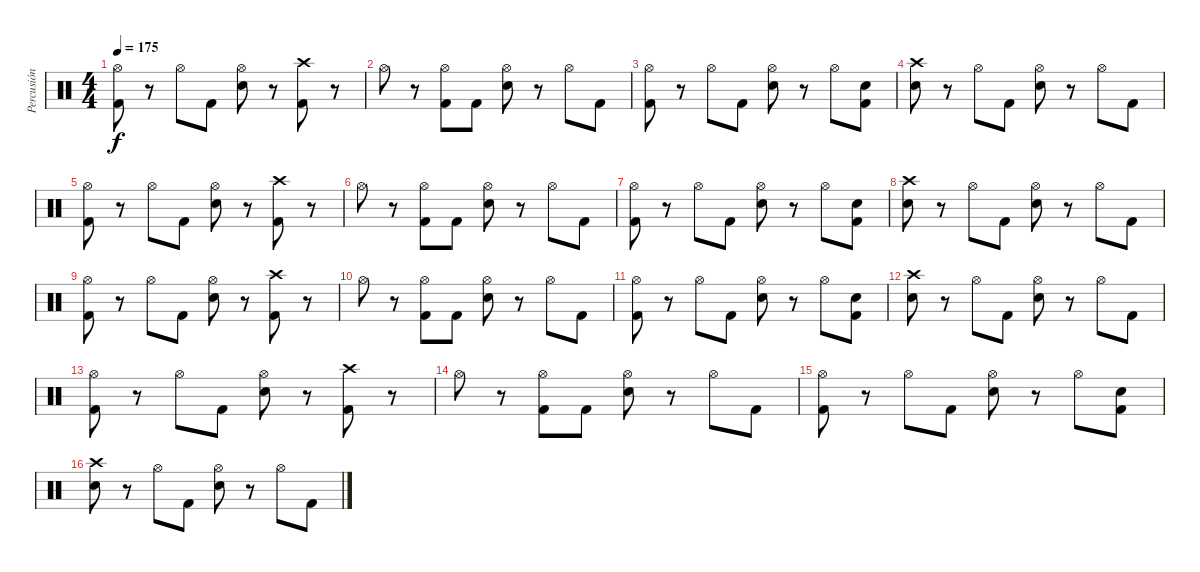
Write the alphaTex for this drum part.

\track ("Percusión" "Percusión") {instrument percussion}
\staff {score}
\articulation defaults
\ts (4 4)
\tempo 175
\clef neutral
\ks c
("Hi-Hat (open)" "Kick (hit) 2").8{dy f} r.8 "Hi-Hat (open)".8 "Kick (hit) 2".8 ("Hi-Hat (open)" "Electric Snare (hit)").8 r.8 ("Crash high (hit)" "Kick (hit) 2").8 r.8 |
"Hi-Hat (open)".8 r.8 ("Hi-Hat (open)" "Kick (hit) 2").8 "Kick (hit) 2".8 ("Hi-Hat (open)" "Electric Snare (hit)").8 r.8 "Hi-Hat (open)".8 "Kick (hit) 2".8 |
("Hi-Hat (open)" "Kick (hit) 2").8 r.8 "Hi-Hat (open)".8 "Kick (hit) 2".8 ("Electric Snare (hit)" "Hi-Hat (open)").8 r.8 "Hi-Hat (open)".8 ("Electric Snare (hit)" "Kick (hit) 2").8 |
("Crash high (hit)" "Electric Snare (hit)").8 r.8 "Hi-Hat (open)".8 "Kick (hit) 2".8 ("Hi-Hat (open)" "Electric Snare (hit)").8 r.8 "Hi-Hat (open)".8 "Kick (hit) 2".8 |
("Hi-Hat (open)" "Kick (hit) 2").8 r.8 "Hi-Hat (open)".8 "Kick (hit) 2".8 ("Hi-Hat (open)" "Electric Snare (hit)").8 r.8 ("Crash high (hit)" "Kick (hit) 2").8 r.8 |
"Hi-Hat (open)".8 r.8 ("Hi-Hat (open)" "Kick (hit) 2").8 "Kick (hit) 2".8 ("Hi-Hat (open)" "Electric Snare (hit)").8 r.8 "Hi-Hat (open)".8 "Kick (hit) 2".8 |
("Hi-Hat (open)" "Kick (hit) 2").8 r.8 "Hi-Hat (open)".8 "Kick (hit) 2".8 ("Electric Snare (hit)" "Hi-Hat (open)").8 r.8 "Hi-Hat (open)".8 ("Electric Snare (hit)" "Kick (hit) 2").8 |
("Crash high (hit)" "Electric Snare (hit)").8 r.8 "Hi-Hat (open)".8 "Kick (hit) 2".8 ("Hi-Hat (open)" "Electric Snare (hit)").8 r.8 "Hi-Hat (open)".8 "Kick (hit) 2".8 |
("Hi-Hat (open)" "Kick (hit) 2").8 r.8 "Hi-Hat (open)".8 "Kick (hit) 2".8 ("Hi-Hat (open)" "Electric Snare (hit)").8 r.8 ("Crash high (hit)" "Kick (hit) 2").8 r.8 |
"Hi-Hat (open)".8 r.8 ("Hi-Hat (open)" "Kick (hit) 2").8 "Kick (hit) 2".8 ("Hi-Hat (open)" "Electric Snare (hit)").8 r.8 "Hi-Hat (open)".8 "Kick (hit) 2".8 |
("Hi-Hat (open)" "Kick (hit) 2").8 r.8 "Hi-Hat (open)".8 "Kick (hit) 2".8 ("Electric Snare (hit)" "Hi-Hat (open)").8 r.8 "Hi-Hat (open)".8 ("Electric Snare (hit)" "Kick (hit) 2").8 |
("Crash high (hit)" "Electric Snare (hit)").8 r.8 "Hi-Hat (open)".8 "Kick (hit) 2".8 ("Hi-Hat (open)" "Electric Snare (hit)").8 r.8 "Hi-Hat (open)".8 "Kick (hit) 2".8 |
("Hi-Hat (open)" "Kick (hit) 2").8 r.8 "Hi-Hat (open)".8 "Kick (hit) 2".8 ("Hi-Hat (open)" "Electric Snare (hit)").8 r.8 ("Crash high (hit)" "Kick (hit) 2").8 r.8 |
"Hi-Hat (open)".8 r.8 ("Hi-Hat (open)" "Kick (hit) 2").8 "Kick (hit) 2".8 ("Hi-Hat (open)" "Electric Snare (hit)").8 r.8 "Hi-Hat (open)".8 "Kick (hit) 2".8 |
("Hi-Hat (open)" "Kick (hit) 2").8 r.8 "Hi-Hat (open)".8 "Kick (hit) 2".8 ("Electric Snare (hit)" "Hi-Hat (open)").8 r.8 "Hi-Hat (open)".8 ("Electric Snare (hit)" "Kick (hit) 2").8 |
("Crash high (hit)" "Electric Snare (hit)").8 r.8 "Hi-Hat (open)".8 "Kick (hit) 2".8 ("Hi-Hat (open)" "Electric Snare (hit)").8 r.8 "Hi-Hat (open)".8 "Kick (hit) 2".8
